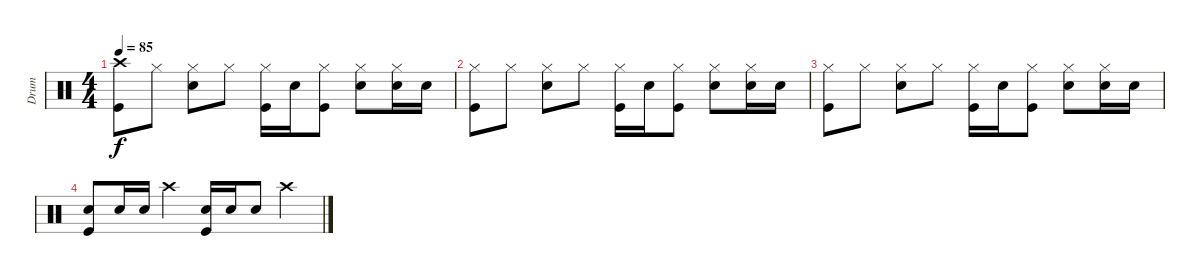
\track ("Drum" "Drum") {instrument percussion}
\staff {score}
\articulation defaults
\ts (4 4)
\tempo 85
\clef neutral
\ks c
("Crash high (hit)" "Kick (hit)").8{dy f} "Hi-Hat (closed)".8 ("Hi-Hat (closed)" "Snare (hit) 2").8 "Hi-Hat (closed)".8 ("Hi-Hat (closed)" "Kick (hit)").16 "Snare (hit) 2".16 ("Hi-Hat (closed)" "Kick (hit)").8 ("Hi-Hat (closed)" "Snare (hit) 2").8 ("Hi-Hat (closed)" "Snare (hit) 2").16 "Snare (hit) 2".16 |
("Hi-Hat (closed)" "Kick (hit)").8 "Hi-Hat (closed)".8 ("Hi-Hat (closed)" "Snare (hit) 2").8 "Hi-Hat (closed)".8 ("Hi-Hat (closed)" "Kick (hit)").16 "Snare (hit) 2".16 ("Hi-Hat (closed)" "Kick (hit)").8 ("Hi-Hat (closed)" "Snare (hit) 2").8 ("Hi-Hat (closed)" "Snare (hit) 2").16 "Snare (hit) 2".16 |
("Hi-Hat (closed)" "Kick (hit)").8 "Hi-Hat (closed)".8 ("Hi-Hat (closed)" "Snare (hit) 2").8 "Hi-Hat (closed)".8 ("Hi-Hat (closed)" "Kick (hit)").16 "Snare (hit) 2".16 ("Hi-Hat (closed)" "Kick (hit)").8 ("Hi-Hat (closed)" "Snare (hit) 2").8 ("Hi-Hat (closed)" "Snare (hit) 2").16 "Snare (hit) 2".16 |
("Snare (hit) 2" "Kick (hit)").8 "Snare (hit) 2".16 "Snare (hit) 2".16 "Crash high (hit)".4 ("Snare (hit) 2" "Kick (hit)").16 "Snare (hit) 2".16 "Snare (hit) 2".8 "Crash high (hit)".4
